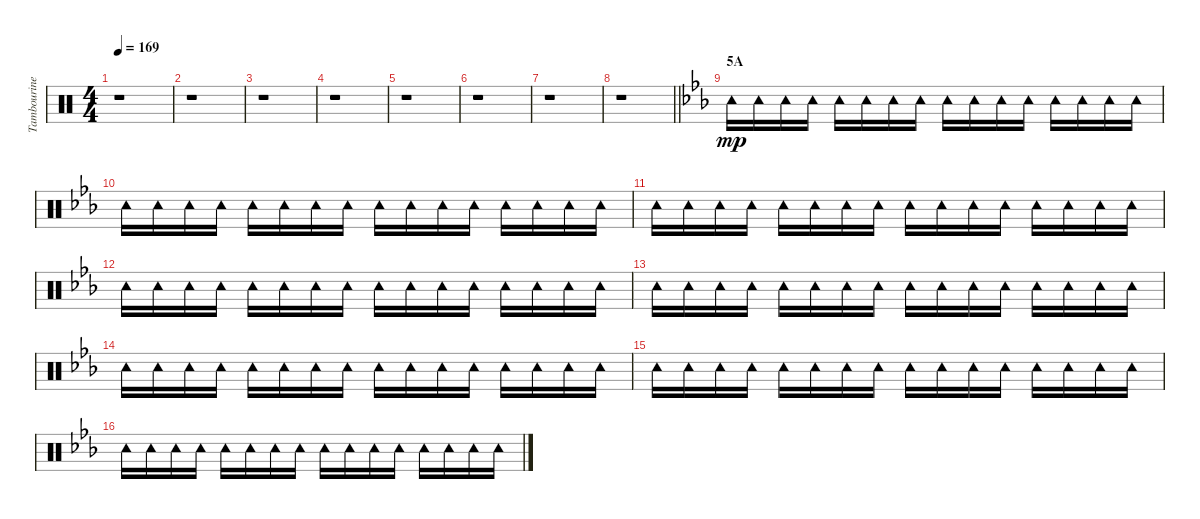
\track ("Tambourine" "Tambourine") {instrument percussion}
\staff {score}
\articulation defaults
\ts (4 4)
\tempo 169
\clef neutral
\ks c
r.1{dy mp} |
r.1 |
r.1 |
r.1 |
r.1 |
r.1 |
r.1 |
\barLineRight lightlight
r.1 |
\section ("" "5A")
\ks eb "Tambourine (hit)".16 "Tambourine (hit)".16 "Tambourine (hit)".16 "Tambourine (hit)".16 "Tambourine (hit)".16 "Tambourine (hit)".16 "Tambourine (hit)".16 "Tambourine (hit)".16 "Tambourine (hit)".16 "Tambourine (hit)".16 "Tambourine (hit)".16 "Tambourine (hit)".16 "Tambourine (hit)".16 "Tambourine (hit)".16 "Tambourine (hit)".16 "Tambourine (hit)".16
|
"Tambourine (hit)".16 "Tambourine (hit)".16 "Tambourine (hit)".16 "Tambourine (hit)".16 "Tambourine (hit)".16 "Tambourine (hit)".16 "Tambourine (hit)".16 "Tambourine (hit)".16 "Tambourine (hit)".16 "Tambourine (hit)".16 "Tambourine (hit)".16 "Tambourine (hit)".16 "Tambourine (hit)".16 "Tambourine (hit)".16 "Tambourine (hit)".16 "Tambourine (hit)".16 |
"Tambourine (hit)".16 "Tambourine (hit)".16 "Tambourine (hit)".16 "Tambourine (hit)".16 "Tambourine (hit)".16 "Tambourine (hit)".16 "Tambourine (hit)".16 "Tambourine (hit)".16 "Tambourine (hit)".16 "Tambourine (hit)".16 "Tambourine (hit)".16 "Tambourine (hit)".16 "Tambourine (hit)".16 "Tambourine (hit)".16 "Tambourine (hit)".16 "Tambourine (hit)".16 |
"Tambourine (hit)".16 "Tambourine (hit)".16 "Tambourine (hit)".16 "Tambourine (hit)".16 "Tambourine (hit)".16 "Tambourine (hit)".16 "Tambourine (hit)".16 "Tambourine (hit)".16 "Tambourine (hit)".16 "Tambourine (hit)".16 "Tambourine (hit)".16 "Tambourine (hit)".16 "Tambourine (hit)".16 "Tambourine (hit)".16 "Tambourine (hit)".16 "Tambourine (hit)".16 |
"Tambourine (hit)".16 "Tambourine (hit)".16 "Tambourine (hit)".16 "Tambourine (hit)".16 "Tambourine (hit)".16 "Tambourine (hit)".16 "Tambourine (hit)".16 "Tambourine (hit)".16 "Tambourine (hit)".16 "Tambourine (hit)".16 "Tambourine (hit)".16 "Tambourine (hit)".16 "Tambourine (hit)".16 "Tambourine (hit)".16 "Tambourine (hit)".16 "Tambourine (hit)".16 |
"Tambourine (hit)".16 "Tambourine (hit)".16 "Tambourine (hit)".16 "Tambourine (hit)".16 "Tambourine (hit)".16 "Tambourine (hit)".16 "Tambourine (hit)".16 "Tambourine (hit)".16 "Tambourine (hit)".16 "Tambourine (hit)".16 "Tambourine (hit)".16 "Tambourine (hit)".16 "Tambourine (hit)".16 "Tambourine (hit)".16 "Tambourine (hit)".16 "Tambourine (hit)".16 |
"Tambourine (hit)".16 "Tambourine (hit)".16 "Tambourine (hit)".16 "Tambourine (hit)".16 "Tambourine (hit)".16 "Tambourine (hit)".16 "Tambourine (hit)".16 "Tambourine (hit)".16 "Tambourine (hit)".16 "Tambourine (hit)".16 "Tambourine (hit)".16 "Tambourine (hit)".16 "Tambourine (hit)".16 "Tambourine (hit)".16 "Tambourine (hit)".16 "Tambourine (hit)".16 |
"Tambourine (hit)".16 "Tambourine (hit)".16 "Tambourine (hit)".16 "Tambourine (hit)".16 "Tambourine (hit)".16 "Tambourine (hit)".16 "Tambourine (hit)".16 "Tambourine (hit)".16 "Tambourine (hit)".16 "Tambourine (hit)".16 "Tambourine (hit)".16 "Tambourine (hit)".16 "Tambourine (hit)".16 "Tambourine (hit)".16 "Tambourine (hit)".16 "Tambourine (hit)".16
